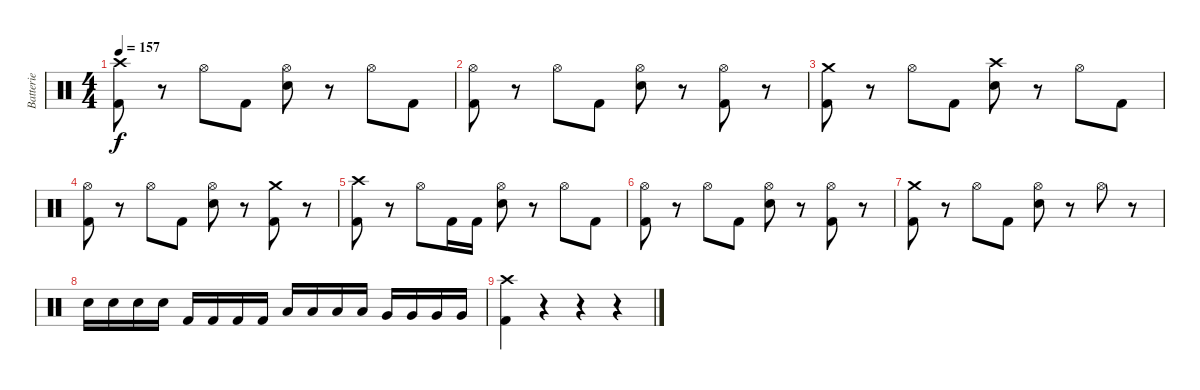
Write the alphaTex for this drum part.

\track ("Batterie" "Batterie") {instrument percussion}
\staff {score}
\articulation defaults
\ts (4 4)
\tempo 157
\clef neutral
\ks c
("Kick (hit) 2" "Crash high (hit)").8{dy f} r.8 "Hi-Hat (open)".8 "Kick (hit) 2".8 ("Electric Snare (hit)" "Hi-Hat (open)").8 r.8 "Hi-Hat (open)".8 "Kick (hit) 2".8 |
("Kick (hit) 2" "Hi-Hat (open)").8 r.8 "Hi-Hat (open)".8 "Kick (hit) 2".8 ("Electric Snare (hit)" "Hi-Hat (open)").8 r.8 ("Kick (hit) 2" "Hi-Hat (open)").8 r.8 |
("Kick (hit) 2" "Crash medium (hit)").8 r.8 "Hi-Hat (open)".8 "Kick (hit) 2".8 ("Electric Snare (hit)" "Crash high (hit)").8 r.8 "Hi-Hat (open)".8 "Kick (hit) 2".8 |
("Kick (hit) 2" "Hi-Hat (open)").8 r.8 "Hi-Hat (open)".8 "Kick (hit) 2".8 ("Electric Snare (hit)" "Hi-Hat (open)").8 r.8 ("Kick (hit) 2" "Crash medium (hit)").8 r.8 |
("Kick (hit) 2" "Crash high (hit)").8 r.8 "Hi-Hat (open)".8 "Kick (hit) 2".16 "Kick (hit) 2".16 ("Electric Snare (hit)" "Hi-Hat (open)").8 r.8 "Hi-Hat (open)".8 "Kick (hit) 2".8 |
("Kick (hit) 2" "Hi-Hat (open)").8 r.8 "Hi-Hat (open)".8 "Kick (hit) 2".8 ("Electric Snare (hit)" "Hi-Hat (open)").8 r.8 ("Kick (hit) 2" "Hi-Hat (open)").8 r.8 |
("Kick (hit) 2" "Crash medium (hit)").8 r.8 "Hi-Hat (open)".8 "Kick (hit) 2".8 ("Electric Snare (hit)" "Hi-Hat (open)").8 r.8 "Hi-Hat (open)".8 r.8 |
"Electric Snare (hit)".16 "Electric Snare (hit)".16 "Electric Snare (hit)".16 "Electric Snare (hit)".16 "Kick (hit) 2".16 "Kick (hit) 2".16 "Kick (hit) 2".16 "Kick (hit) 2".16 "Low Tom (hit)".16 "Low Tom (hit)".16 "Low Tom (hit)".16 "Low Tom (hit)".16 "Very Low Tom (hit)".16 "Very Low Tom (hit)".16 "Very Low Tom (hit)".16 "Very Low Tom (hit)".16 |
("Kick (hit) 2" "Crash high (hit)").4 r.4 r.4 r.4
